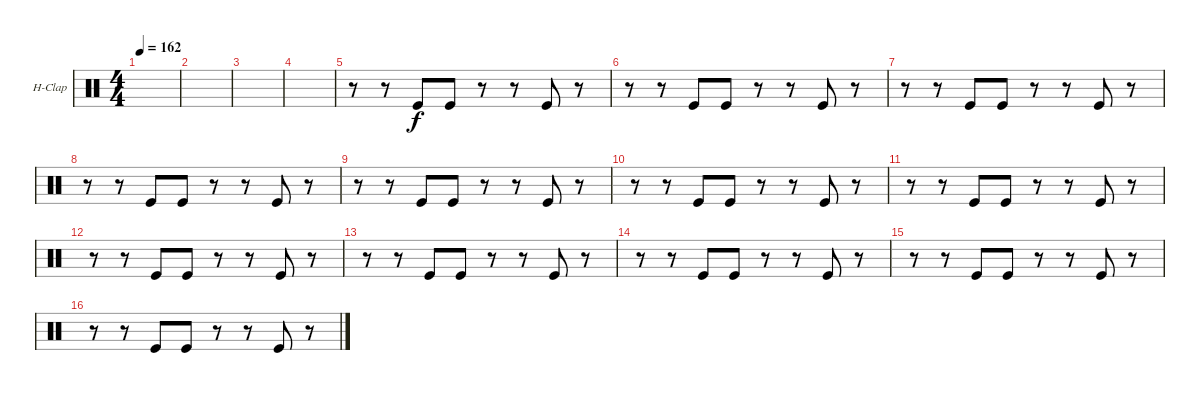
\defaultSystemsLayout 4
\bracketExtendMode groupsimilarinstruments
\firstSystemTrackNameOrientation horizontal
\otherSystemsTrackNameOrientation horizontal
\track ("Hand Clap" "H-Clap") {instrument percussion}
\staff {score}
\articulation defaults
\ts (4 4)
\tempo 162
\clef neutral
\ks c
|
|
|
|
r.8 r.8 "Kick (hit)".8 "Kick (hit)".8 r.8 r.8 "Kick (hit)".8 r.8 |
r.8 r.8 "Kick (hit)".8 "Kick (hit)".8 r.8 r.8 "Kick (hit)".8 r.8 |
r.8 r.8 "Kick (hit)".8 "Kick (hit)".8 r.8 r.8 "Kick (hit)".8 r.8 |
r.8 r.8 "Kick (hit)".8 "Kick (hit)".8 r.8 r.8 "Kick (hit)".8 r.8 |
r.8 r.8 "Kick (hit)".8 "Kick (hit)".8 r.8 r.8 "Kick (hit)".8 r.8 |
r.8 r.8 "Kick (hit)".8 "Kick (hit)".8 r.8 r.8 "Kick (hit)".8 r.8 |
r.8 r.8 "Kick (hit)".8 "Kick (hit)".8 r.8 r.8 "Kick (hit)".8 r.8 |
r.8 r.8 "Kick (hit)".8 "Kick (hit)".8 r.8 r.8 "Kick (hit)".8 r.8 |
r.8 r.8 "Kick (hit)".8 "Kick (hit)".8 r.8 r.8 "Kick (hit)".8 r.8 |
r.8 r.8 "Kick (hit)".8 "Kick (hit)".8 r.8 r.8 "Kick (hit)".8 r.8 |
r.8 r.8 "Kick (hit)".8 "Kick (hit)".8 r.8 r.8 "Kick (hit)".8 r.8 |
r.8 r.8 "Kick (hit)".8 "Kick (hit)".8 r.8 r.8 "Kick (hit)".8 r.8
